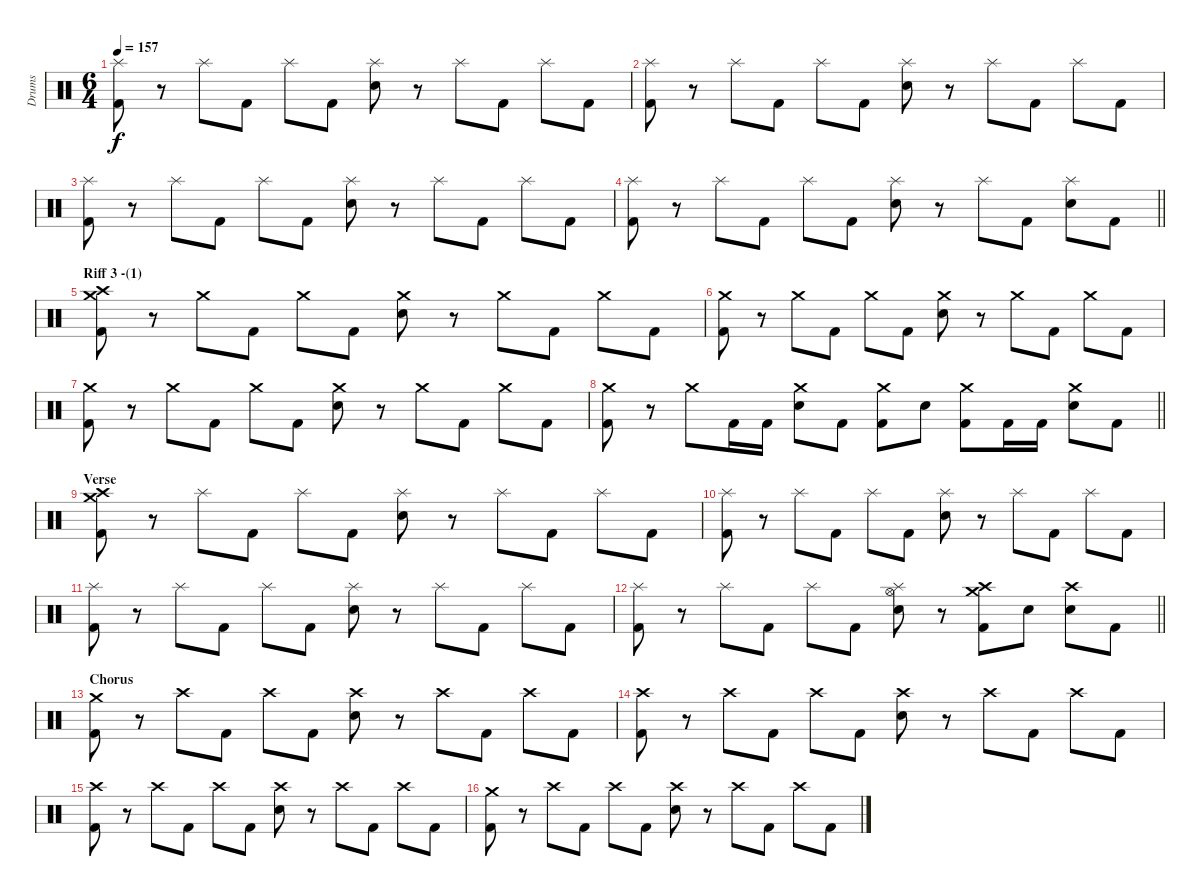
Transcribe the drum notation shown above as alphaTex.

\track ("Drums" "Drums") {instrument percussion}
\staff {score}
\articulation defaults
\ts (6 4)
\tempo 157
\clef neutral
\ks c
("Splash (hit)" "Kick (hit) 2").8{dy f} r.8 "Splash (hit)".8 "Kick (hit) 2".8 "Splash (hit)".8 "Kick (hit) 2".8 ("Splash (hit)" "Electric Snare (hit)").8 r.8 "Splash (hit)".8 "Kick (hit) 2".8 "Splash (hit)".8 "Kick (hit) 2".8 |
("Splash (hit)" "Kick (hit) 2").8 r.8 "Splash (hit)".8 "Kick (hit) 2".8 "Splash (hit)".8 "Kick (hit) 2".8 ("Splash (hit)" "Electric Snare (hit)").8 r.8 "Splash (hit)".8 "Kick (hit) 2".8 "Splash (hit)".8 "Kick (hit) 2".8 |
("Splash (hit)" "Kick (hit) 2").8 r.8 "Splash (hit)".8 "Kick (hit) 2".8 "Splash (hit)".8 "Kick (hit) 2".8 ("Splash (hit)" "Electric Snare (hit)").8 r.8 "Splash (hit)".8 "Kick (hit) 2".8 "Splash (hit)".8 "Kick (hit) 2".8 |
\barLineRight lightlight
("Splash (hit)" "Kick (hit) 2").8 r.8 "Splash (hit)".8 "Kick (hit) 2".8 "Splash (hit)".8 "Kick (hit) 2".8 ("Splash (hit)" "Electric Snare (hit)").8 r.8 "Splash (hit)".8 "Kick (hit) 2".8 ("Splash (hit)" "Electric Snare (hit)").8 "Kick (hit) 2".8 |
\section ("" "Riff 3 -(1)")
("Crash medium (hit)" "Crash high (hit)" "Kick (hit) 2").8 r.8 "Crash medium (hit)".8 "Kick (hit) 2".8 "Crash medium (hit)".8 "Kick (hit) 2".8 ("Crash medium (hit)" "Electric Snare (hit)").8 r.8 "Crash medium (hit)".8 "Kick (hit) 2".8 "Crash medium (hit)".8 "Kick (hit) 2".8 |
("Crash medium (hit)" "Kick (hit) 2").8 r.8 "Crash medium (hit)".8 "Kick (hit) 2".8 "Crash medium (hit)".8 "Kick (hit) 2".8 ("Crash medium (hit)" "Electric Snare (hit)").8 r.8 "Crash medium (hit)".8 "Kick (hit) 2".8 "Crash medium (hit)".8 "Kick (hit) 2".8 |
("Crash medium (hit)" "Kick (hit) 2").8 r.8 "Crash medium (hit)".8 "Kick (hit) 2".8 "Crash medium (hit)".8 "Kick (hit) 2".8 ("Crash medium (hit)" "Electric Snare (hit)").8 r.8 "Crash medium (hit)".8 "Kick (hit) 2".8 "Crash medium (hit)".8 "Kick (hit) 2".8 |
\barLineRight lightlight
("Crash medium (hit)" "Kick (hit) 2").8 r.8 "Crash medium (hit)".8 "Kick (hit) 2".16 "Kick (hit) 2".16 ("Crash medium (hit)" "Electric Snare (hit)").8 "Kick (hit) 2".8 ("Crash medium (hit)" "Kick (hit) 2").8 "Electric Snare (hit)".8 ("Crash medium (hit)" "Kick (hit) 2").8 "Kick (hit) 2".16 "Kick (hit) 2".16 ("Crash medium (hit)" "Electric Snare (hit)").8 "Kick (hit) 2".8 |
\section ("" "Verse")
("Crash high (hit)" "Crash medium (hit)" "Kick (hit) 2").8 r.8 "Splash (hit)".8 "Kick (hit) 2".8 "Splash (hit)".8 "Kick (hit) 2".8 ("Splash (hit)" "Electric Snare (hit)").8 r.8 "Splash (hit)".8 "Kick (hit) 2".8 "Splash (hit)".8 "Kick (hit) 2".8 |
("Splash (hit)" "Kick (hit) 2").8 r.8 "Splash (hit)".8 "Kick (hit) 2".8 "Splash (hit)".8 "Kick (hit) 2".8 ("Splash (hit)" "Electric Snare (hit)").8 r.8 "Splash (hit)".8 "Kick (hit) 2".8 "Splash (hit)".8 "Kick (hit) 2".8 |
("Splash (hit)" "Kick (hit) 2").8 r.8 "Splash (hit)".8 "Kick (hit) 2".8 "Splash (hit)".8 "Kick (hit) 2".8 ("Splash (hit)" "Electric Snare (hit)").8 r.8 "Splash (hit)".8 "Kick (hit) 2".8 "Splash (hit)".8 "Kick (hit) 2".8 |
\barLineRight lightlight
("Splash (hit)" "Kick (hit) 2").8 r.8 "Splash (hit)".8 "Kick (hit) 2".8 "Splash (hit)".8 "Kick (hit) 2".8 ("Hi-Hat (open)" "Splash (hit)" "Electric Snare (hit)").8 r.8 ("Crash high (hit)" "Crash medium (hit)" "Kick (hit) 2").8 "Electric Snare (hit)".8 ("Crash high (hit)" "Electric Snare (hit)").8 "Kick (hit) 2".8 |
\section ("" "Chorus")
("Crash medium (hit)" "Kick (hit) 2").8 r.8 "Crash high (hit)".8 "Kick (hit) 2".8 "Crash high (hit)".8 "Kick (hit) 2".8 ("Crash high (hit)" "Electric Snare (hit)").8 r.8 "Crash high (hit)".8 "Kick (hit) 2".8 "Crash high (hit)".8 "Kick (hit) 2".8 |
("Crash high (hit)" "Kick (hit) 2").8 r.8 "Crash high (hit)".8 "Kick (hit) 2".8 "Crash high (hit)".8 "Kick (hit) 2".8 ("Crash high (hit)" "Electric Snare (hit)").8 r.8 "Crash high (hit)".8 "Kick (hit) 2".8 "Crash high (hit)".8 "Kick (hit) 2".8 |
("Crash high (hit)" "Kick (hit) 2").8 r.8 "Crash high (hit)".8 "Kick (hit) 2".8 "Crash high (hit)".8 "Kick (hit) 2".8 ("Crash high (hit)" "Electric Snare (hit)").8 r.8 "Crash high (hit)".8 "Kick (hit) 2".8 "Crash high (hit)".8 "Kick (hit) 2".8 |
("Crash medium (hit)" "Kick (hit) 2").8 r.8 "Crash high (hit)".8 "Kick (hit) 2".8 "Crash high (hit)".8 "Kick (hit) 2".8 ("Crash high (hit)" "Electric Snare (hit)").8 r.8 "Crash high (hit)".8 "Kick (hit) 2".8 "Crash high (hit)".8 "Kick (hit) 2".8
